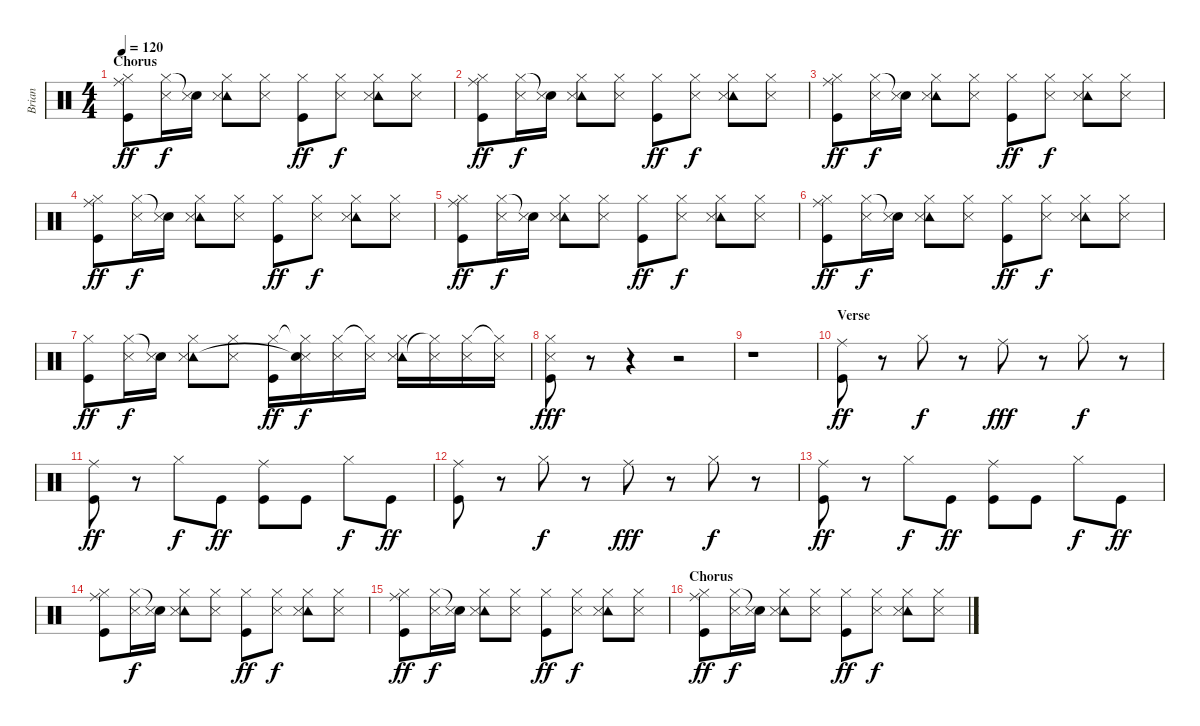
\track ("Brian" "Brian") {instrument percussion}
\staff {score}
\articulation defaults
\ts (4 4)
\section ("" "Chorus")
\tempo 120
\clef neutral
\ks c
("Ride (middle)" "Hi-Hat (closed)" "Kick (hit)").8{dy ff} ("Hi-Hat (closed)" "Snare (side stick) 3").16{dy f} ("Snare (hit)"{t} "Snare (side stick) 3").16 ("Tambourine (hit)" "Hi-Hat (closed)" "Snare (side stick) 3").8 ("Hi-Hat (closed)" "Snare (side stick) 3").8 ("Hi-Hat (closed)" "Kick (hit)").8{dy ff} ("Hi-Hat (closed)" "Snare (side stick) 3").8{dy f} ("Tambourine (hit)" "Hi-Hat (closed)" "Snare (side stick) 3").8 ("Hi-Hat (closed)" "Snare (side stick) 3").8 |
("Ride (middle)" "Hi-Hat (closed)" "Kick (hit)").8{dy ff} ("Hi-Hat (closed)" "Snare (side stick) 3").16{dy f} ("Snare (hit)"{t} "Snare (side stick) 3").16 ("Tambourine (hit)" "Hi-Hat (closed)" "Snare (side stick) 3").8 ("Hi-Hat (closed)" "Snare (side stick) 3").8 ("Hi-Hat (closed)" "Kick (hit)").8{dy ff} ("Hi-Hat (closed)" "Snare (side stick) 3").8{dy f} ("Tambourine (hit)" "Hi-Hat (closed)" "Snare (side stick) 3").8 ("Hi-Hat (closed)" "Snare (side stick) 3").8 |
("Ride (middle)" "Hi-Hat (closed)" "Kick (hit)").8{dy ff} ("Hi-Hat (closed)" "Snare (side stick) 3").16{dy f} ("Snare (hit)"{t} "Snare (side stick) 3").16 ("Tambourine (hit)" "Hi-Hat (closed)" "Snare (side stick) 3").8 ("Hi-Hat (closed)" "Snare (side stick) 3").8 ("Hi-Hat (closed)" "Kick (hit)").8{dy ff} ("Hi-Hat (closed)" "Snare (side stick) 3").8{dy f} ("Tambourine (hit)" "Hi-Hat (closed)" "Snare (side stick) 3").8 ("Hi-Hat (closed)" "Snare (side stick) 3").8 |
("Ride (middle)" "Hi-Hat (closed)" "Kick (hit)").8{dy ff} ("Hi-Hat (closed)" "Snare (side stick) 3").16{dy f} ("Snare (hit)"{t} "Snare (side stick) 3").16 ("Tambourine (hit)" "Hi-Hat (closed)" "Snare (side stick) 3").8 ("Hi-Hat (closed)" "Snare (side stick) 3").8 ("Hi-Hat (closed)" "Kick (hit)").8{dy ff} ("Hi-Hat (closed)" "Snare (side stick) 3").8{dy f} ("Tambourine (hit)" "Hi-Hat (closed)" "Snare (side stick) 3").8 ("Hi-Hat (closed)" "Snare (side stick) 3").8 |
("Ride (middle)" "Hi-Hat (closed)" "Kick (hit)").8{dy ff} ("Hi-Hat (closed)" "Snare (side stick) 3").16{dy f} ("Snare (hit)"{t} "Snare (side stick) 3").16 ("Tambourine (hit)" "Hi-Hat (closed)" "Snare (side stick) 3").8 ("Hi-Hat (closed)" "Snare (side stick) 3").8 ("Hi-Hat (closed)" "Kick (hit)").8{dy ff} ("Hi-Hat (closed)" "Snare (side stick) 3").8{dy f} ("Tambourine (hit)" "Hi-Hat (closed)" "Snare (side stick) 3").8 ("Hi-Hat (closed)" "Snare (side stick) 3").8 |
("Ride (middle)" "Hi-Hat (closed)" "Kick (hit)").8{dy ff} ("Hi-Hat (closed)" "Snare (side stick) 3").16{dy f} ("Snare (hit)"{t} "Snare (side stick) 3").16 ("Tambourine (hit)" "Hi-Hat (closed)" "Snare (side stick) 3").8 ("Hi-Hat (closed)" "Snare (side stick) 3").8 ("Hi-Hat (closed)" "Kick (hit)").8{dy ff} ("Hi-Hat (closed)" "Snare (side stick) 3").8{dy f} ("Tambourine (hit)" "Hi-Hat (closed)" "Snare (side stick) 3").8 ("Hi-Hat (closed)" "Snare (side stick) 3").8 |
("Hi-Hat (closed)" "Kick (hit)").8{dy ff} ("Hi-Hat (closed)" "Snare (side stick) 3").16{dy f} ("Snare (hit)"{t} "Snare (side stick) 3").16 ("Tambourine (hit)" "Hi-Hat (closed)" "Snare (side stick) 3").8 ("Hi-Hat (closed)" "Snare (side stick) 3").8 ("Hi-Hat (closed)" "Kick (hit)").16{dy ff} ("Hi-Hat (closed)"{t} "Snare (side stick) 3" "Snare (hit)"{t}).16{dy f} ("Hi-Hat (closed)" "Snare (side stick) 3").16 ("Hi-Hat (closed)"{t} "Snare (side stick) 3").16 ("Tambourine (hit)" "Hi-Hat (closed)" "Snare (side stick) 3").16 ("Hi-Hat (closed)"{t} "Snare (side stick) 3").16 ("Hi-Hat (closed)" "Snare (side stick) 3").16 ("Hi-Hat (closed)"{t} "Snare (side stick) 3").16 |
("Hi-Hat (closed)" "Snare (side stick) 3" "Kick (hit)").8{dy fff} r.8 r.4 r.2 |
r.1 |
\section ("" "Verse")
("Ride (middle)" "Kick (hit)").8{dy ff} r.8 "Hi-Hat (closed)".8{dy f} r.8 "Ride (middle)".8{dy fff} r.8 "Hi-Hat (closed)".8{dy f} r.8 |
("Ride (middle)" "Kick (hit)").8{dy ff} r.8 "Hi-Hat (closed)".8{dy f} "Kick (hit)".8{dy ff} ("Ride (middle)" "Kick (hit)").8 "Kick (hit)".8 "Hi-Hat (closed)".8{dy f} "Kick (hit)".8{dy ff} |
("Ride (middle)" "Kick (hit)").8 r.8 "Hi-Hat (closed)".8{dy f} r.8 "Ride (middle)".8{dy fff} r.8 "Hi-Hat (closed)".8{dy f} r.8 |
("Ride (middle)" "Kick (hit)").8{dy ff} r.8 "Hi-Hat (closed)".8{dy f} "Kick (hit)".8{dy ff} ("Ride (middle)" "Kick (hit)").8 "Kick (hit)".8 "Hi-Hat (closed)".8{dy f} "Kick (hit)".8{dy ff} |
("Ride (middle)" "Hi-Hat (closed)" "Kick (hit)").8 ("Hi-Hat (closed)" "Snare (side stick) 3").16{dy f} ("Snare (hit)"{t} "Snare (side stick) 3").16 ("Tambourine (hit)" "Hi-Hat (closed)" "Snare (side stick) 3").8 ("Hi-Hat (closed)" "Snare (side stick) 3").8 ("Hi-Hat (closed)" "Kick (hit)").8{dy ff} ("Hi-Hat (closed)" "Snare (side stick) 3").8{dy f} ("Tambourine (hit)" "Hi-Hat (closed)" "Snare (side stick) 3").8 ("Hi-Hat (closed)" "Snare (side stick) 3").8 |
("Ride (middle)" "Hi-Hat (closed)" "Kick (hit)").8{dy ff} ("Hi-Hat (closed)" "Snare (side stick) 3").16{dy f} ("Snare (hit)"{t} "Snare (side stick) 3").16 ("Tambourine (hit)" "Hi-Hat (closed)" "Snare (side stick) 3").8 ("Hi-Hat (closed)" "Snare (side stick) 3").8 ("Hi-Hat (closed)" "Kick (hit)").8{dy ff} ("Hi-Hat (closed)" "Snare (side stick) 3").8{dy f} ("Tambourine (hit)" "Hi-Hat (closed)" "Snare (side stick) 3").8 ("Hi-Hat (closed)" "Snare (side stick) 3").8 |
\section ("" "Chorus")
("Ride (middle)" "Hi-Hat (closed)" "Kick (hit)").8{dy ff} ("Hi-Hat (closed)" "Snare (side stick) 3").16{dy f} ("Snare (hit)"{t} "Snare (side stick) 3").16 ("Tambourine (hit)" "Hi-Hat (closed)" "Snare (side stick) 3").8 ("Hi-Hat (closed)" "Snare (side stick) 3").8 ("Hi-Hat (closed)" "Kick (hit)").8{dy ff} ("Hi-Hat (closed)" "Snare (side stick) 3").8{dy f} ("Tambourine (hit)" "Hi-Hat (closed)" "Snare (side stick) 3").8 ("Hi-Hat (closed)" "Snare (side stick) 3").8
